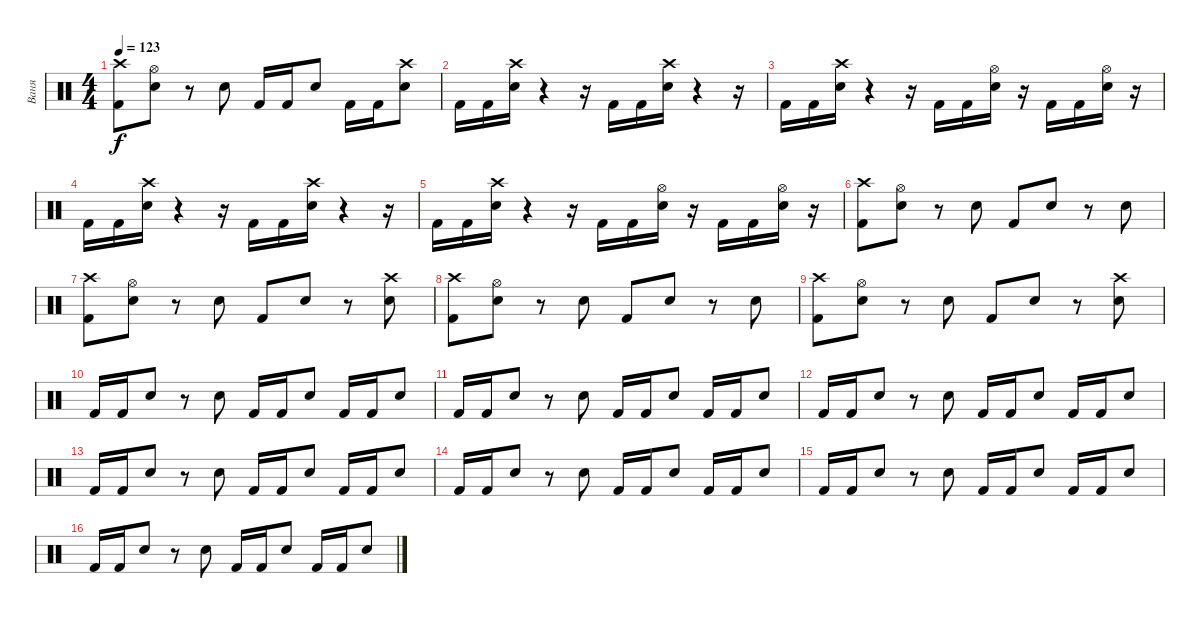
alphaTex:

\track ("Ваня" "Ваня") {instrument percussion}
\staff {score}
\articulation defaults
\ts (4 4)
\tempo 123
\clef neutral
\ks c
("Crash high (hit)" "Kick (hit) 2").8{dy f} ("Hi-Hat (open)" "Snare (hit) 2").8 r.8 "Snare (hit) 2".8 "Kick (hit) 2".16 "Kick (hit) 2".16 "Snare (hit) 2".8 "Kick (hit) 2".16 "Kick (hit) 2".16 ("Crash high (hit)" "Snare (hit) 2").8 |
"Kick (hit) 2".16 "Kick (hit) 2".16 ("Crash high (hit)" "Snare (hit) 2").16 r.4 r.16 "Kick (hit) 2".16 "Kick (hit) 2".16 ("Crash high (hit)" "Snare (hit) 2").16 r.4 r.16 |
"Kick (hit) 2".16 "Kick (hit) 2".16 ("Crash high (hit)" "Snare (hit) 2").16 r.4 r.16 "Kick (hit) 2".16 "Kick (hit) 2".16 ("Hi-Hat (open)" "Snare (hit) 2").16 r.16 "Kick (hit) 2".16 "Kick (hit) 2".16 ("Hi-Hat (open)" "Snare (hit) 2").16 r.16 |
"Kick (hit) 2".16 "Kick (hit) 2".16 ("Crash high (hit)" "Snare (hit) 2").16 r.4 r.16 "Kick (hit) 2".16 "Kick (hit) 2".16 ("Crash high (hit)" "Snare (hit) 2").16 r.4 r.16 |
"Kick (hit) 2".16 "Kick (hit) 2".16 ("Crash high (hit)" "Snare (hit) 2").16 r.4 r.16 "Kick (hit) 2".16 "Kick (hit) 2".16 ("Hi-Hat (open)" "Snare (hit) 2").16 r.16 "Kick (hit) 2".16 "Kick (hit) 2".16 ("Hi-Hat (open)" "Snare (hit) 2").16 r.16 |
("Crash high (hit)" "Kick (hit) 2").8 ("Hi-Hat (open)" "Snare (hit) 2").8 r.8 "Snare (hit) 2".8 "Kick (hit) 2".8 "Snare (hit) 2".8 r.8 "Snare (hit) 2".8 |
("Crash high (hit)" "Kick (hit) 2").8 ("Hi-Hat (open)" "Snare (hit) 2").8 r.8 "Snare (hit) 2".8 "Kick (hit) 2".8 "Snare (hit) 2".8 r.8 ("Crash high (hit)" "Snare (hit) 2").8 |
("Crash high (hit)" "Kick (hit) 2").8 ("Hi-Hat (open)" "Snare (hit) 2").8 r.8 "Snare (hit) 2".8 "Kick (hit) 2".8 "Snare (hit) 2".8 r.8 "Snare (hit) 2".8 |
("Crash high (hit)" "Kick (hit) 2").8 ("Hi-Hat (open)" "Snare (hit) 2").8 r.8 "Snare (hit) 2".8 "Kick (hit) 2".8 "Snare (hit) 2".8 r.8 ("Crash high (hit)" "Snare (hit) 2").8 |
"Kick (hit) 2".16 "Kick (hit) 2".16 "Snare (hit) 2".8 r.8 "Snare (hit) 2".8 "Kick (hit) 2".16 "Kick (hit) 2".16 "Snare (hit) 2".8 "Kick (hit) 2".16 "Kick (hit) 2".16 "Snare (hit) 2".8 |
"Kick (hit) 2".16 "Kick (hit) 2".16 "Snare (hit) 2".8 r.8 "Snare (hit) 2".8 "Kick (hit) 2".16 "Kick (hit) 2".16 "Snare (hit) 2".8 "Kick (hit) 2".16 "Kick (hit) 2".16 "Snare (hit) 2".8 |
"Kick (hit) 2".16 "Kick (hit) 2".16 "Snare (hit) 2".8 r.8 "Snare (hit) 2".8 "Kick (hit) 2".16 "Kick (hit) 2".16 "Snare (hit) 2".8 "Kick (hit) 2".16 "Kick (hit) 2".16 "Snare (hit) 2".8 |
"Kick (hit) 2".16 "Kick (hit) 2".16 "Snare (hit) 2".8 r.8 "Snare (hit) 2".8 "Kick (hit) 2".16 "Kick (hit) 2".16 "Snare (hit) 2".8 "Kick (hit) 2".16 "Kick (hit) 2".16 "Snare (hit) 2".8 |
"Kick (hit) 2".16 "Kick (hit) 2".16 "Snare (hit) 2".8 r.8 "Snare (hit) 2".8 "Kick (hit) 2".16 "Kick (hit) 2".16 "Snare (hit) 2".8 "Kick (hit) 2".16 "Kick (hit) 2".16 "Snare (hit) 2".8 |
"Kick (hit) 2".16 "Kick (hit) 2".16 "Snare (hit) 2".8 r.8 "Snare (hit) 2".8 "Kick (hit) 2".16 "Kick (hit) 2".16 "Snare (hit) 2".8 "Kick (hit) 2".16 "Kick (hit) 2".16 "Snare (hit) 2".8 |
"Kick (hit) 2".16 "Kick (hit) 2".16 "Snare (hit) 2".8 r.8 "Snare (hit) 2".8 "Kick (hit) 2".16 "Kick (hit) 2".16 "Snare (hit) 2".8 "Kick (hit) 2".16 "Kick (hit) 2".16 "Snare (hit) 2".8
